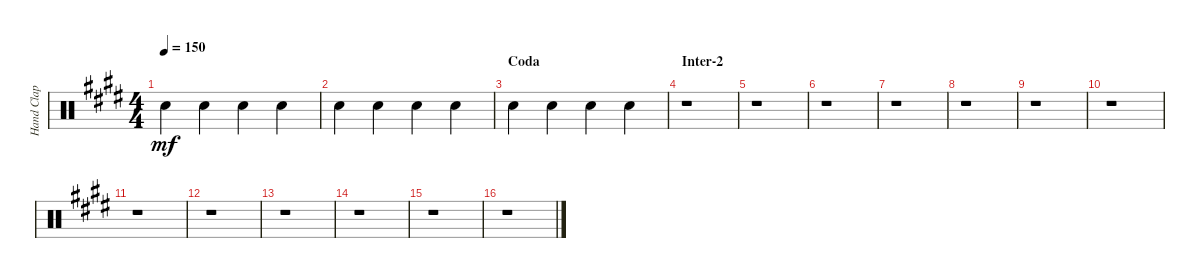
\track ("Hand Clap" "Hand Clap") {instrument percussion}
\staff {score}
\articulation defaults
\ts (4 4)
\tempo 150
\clef neutral
\ks e "Hand Clap (hit)".4{dy mf} "Hand Clap (hit)".4 "Hand Clap (hit)".4 "Hand Clap (hit)".4
|
"Hand Clap (hit)".4 "Hand Clap (hit)".4 "Hand Clap (hit)".4 "Hand Clap (hit)".4 |
\section ("" "Coda")
"Hand Clap (hit)".4 "Hand Clap (hit)".4 "Hand Clap (hit)".4 "Hand Clap (hit)".4 |
\section ("" "Inter-2")
r.1 |
r.1 |
r.1 |
r.1 |
r.1 |
r.1 |
r.1 |
r.1 |
r.1 |
r.1 |
r.1 |
r.1 |
r.1
